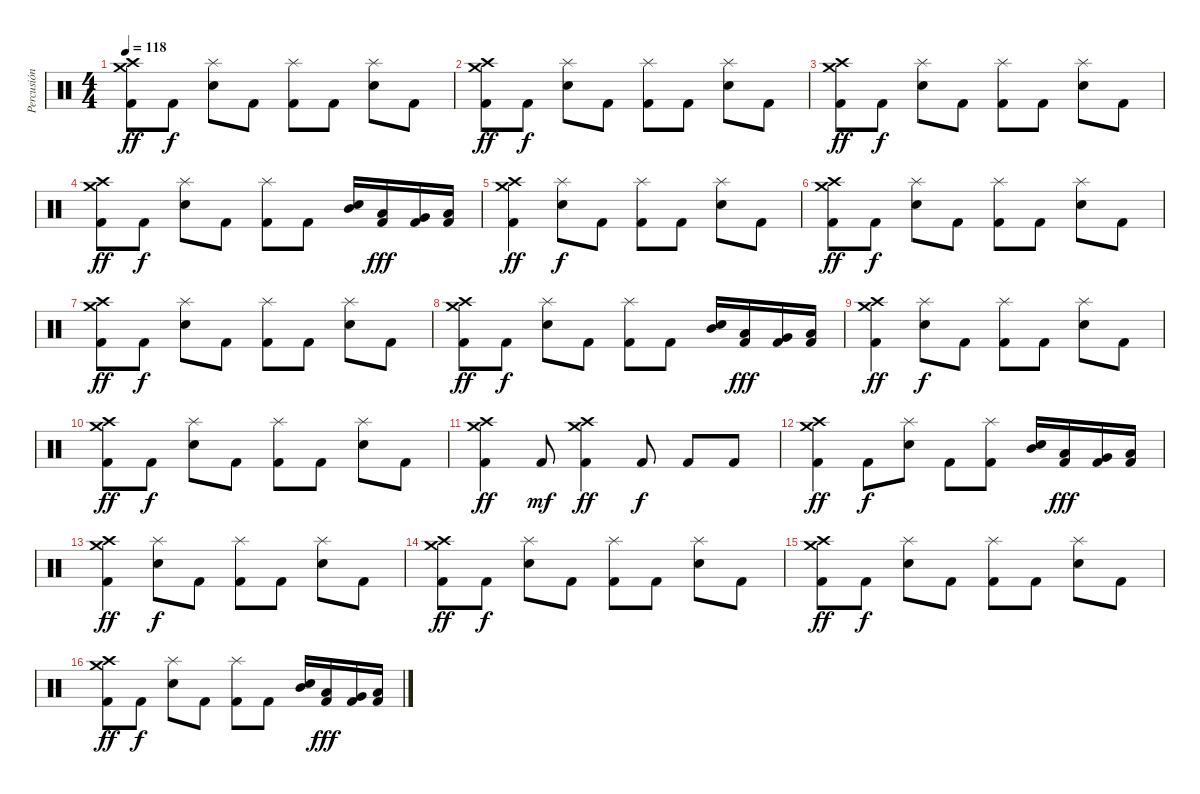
\track ("Percusión" "Percusión") {instrument percussion}
\staff {score}
\articulation defaults
\ts (4 4)
\tempo 118
\clef neutral
\ks c
("Kick (hit) 2" "Crash medium (hit)" "Crash high (hit)").8{dy ff} "Kick (hit) 2".8{dy f} ("Snare (hit) 2" "Splash (hit)").8 "Kick (hit) 2".8 ("Kick (hit) 2" "Splash (hit)").8 "Kick (hit) 2".8 ("Snare (hit) 2" "Splash (hit)").8 "Kick (hit) 2".8 |
("Kick (hit) 2" "Crash medium (hit)" "Crash high (hit)").8{dy ff} "Kick (hit) 2".8{dy f} ("Snare (hit) 2" "Splash (hit)").8 "Kick (hit) 2".8 ("Kick (hit) 2" "Splash (hit)").8 "Kick (hit) 2".8 ("Snare (hit) 2" "Splash (hit)").8 "Kick (hit) 2".8 |
("Kick (hit) 2" "Crash medium (hit)" "Crash high (hit)").8{dy ff} "Kick (hit) 2".8{dy f} ("Snare (hit) 2" "Splash (hit)").8 "Kick (hit) 2".8 ("Kick (hit) 2" "Splash (hit)").8 "Kick (hit) 2".8 ("Snare (hit) 2" "Splash (hit)").8 "Kick (hit) 2".8 |
("Kick (hit) 2" "Crash medium (hit)" "Crash high (hit)").8{dy ff} "Kick (hit) 2".8{dy f} ("Snare (hit) 2" "Splash (hit)").8 "Kick (hit) 2".8 ("Kick (hit) 2" "Splash (hit)").8 "Kick (hit) 2".8 ("Snare (hit) 2" "Mid Tom (hit)").16 ("Low Tom (hit)" "Kick (hit) 2").16{dy fff} ("Very Low Tom (hit)" "Kick (hit) 2").16 ("Low Floor Tom (hit)" "Kick (hit) 2").16 |
("Kick (hit) 2" "Crash medium (hit)" "Crash high (hit)").4{dy ff} ("Snare (hit) 2" "Splash (hit)").8{dy f} "Kick (hit) 2".8 ("Kick (hit) 2" "Splash (hit)").8 "Kick (hit) 2".8 ("Snare (hit) 2" "Splash (hit)").8 "Kick (hit) 2".8 |
("Kick (hit) 2" "Crash medium (hit)" "Crash high (hit)").8{dy ff} "Kick (hit) 2".8{dy f} ("Snare (hit) 2" "Splash (hit)").8 "Kick (hit) 2".8 ("Kick (hit) 2" "Splash (hit)").8 "Kick (hit) 2".8 ("Snare (hit) 2" "Splash (hit)").8 "Kick (hit) 2".8 |
("Kick (hit) 2" "Crash medium (hit)" "Crash high (hit)").8{dy ff} "Kick (hit) 2".8{dy f} ("Snare (hit) 2" "Splash (hit)").8 "Kick (hit) 2".8 ("Kick (hit) 2" "Splash (hit)").8 "Kick (hit) 2".8 ("Snare (hit) 2" "Splash (hit)").8 "Kick (hit) 2".8 |
("Kick (hit) 2" "Crash medium (hit)" "Crash high (hit)").8{dy ff} "Kick (hit) 2".8{dy f} ("Snare (hit) 2" "Splash (hit)").8 "Kick (hit) 2".8 ("Kick (hit) 2" "Splash (hit)").8 "Kick (hit) 2".8 ("Snare (hit) 2" "Mid Tom (hit)").16 ("Low Tom (hit)" "Kick (hit) 2").16{dy fff} ("Very Low Tom (hit)" "Kick (hit) 2").16 ("Low Floor Tom (hit)" "Kick (hit) 2").16 |
("Kick (hit) 2" "Crash medium (hit)" "Crash high (hit)").4{dy ff} ("Snare (hit) 2" "Splash (hit)").8{dy f} "Kick (hit) 2".8 ("Kick (hit) 2" "Splash (hit)").8 "Kick (hit) 2".8 ("Snare (hit) 2" "Splash (hit)").8 "Kick (hit) 2".8 |
("Kick (hit) 2" "Crash medium (hit)" "Crash high (hit)").8{dy ff} "Kick (hit) 2".8{dy f} ("Snare (hit) 2" "Splash (hit)").8 "Kick (hit) 2".8 ("Kick (hit) 2" "Splash (hit)").8 "Kick (hit) 2".8 ("Snare (hit) 2" "Splash (hit)").8 "Kick (hit) 2".8 |
("Kick (hit) 2" "Crash medium (hit)" "Crash high (hit)").4{dy ff} "Kick (hit) 2".8{dy mf} ("Kick (hit) 2" "Crash medium (hit)" "Crash high (hit)").4{dy ff} "Kick (hit) 2".8{dy f} "Kick (hit) 2".8 "Kick (hit) 2".8 |
("Kick (hit) 2" "Crash medium (hit)" "Crash high (hit)").4{dy ff} "Kick (hit) 2".8{dy f} ("Snare (hit) 2" "Splash (hit)").8 "Kick (hit) 2".8 ("Kick (hit) 2" "Splash (hit)").8 ("Snare (hit) 2" "Mid Tom (hit)").16 ("Low Tom (hit)" "Kick (hit) 2").16{dy fff} ("Very Low Tom (hit)" "Kick (hit) 2").16 ("Low Floor Tom (hit)" "Kick (hit) 2").16 |
("Kick (hit) 2" "Crash medium (hit)" "Crash high (hit)").4{dy ff} ("Snare (hit) 2" "Splash (hit)").8{dy f} "Kick (hit) 2".8 ("Kick (hit) 2" "Splash (hit)").8 "Kick (hit) 2".8 ("Snare (hit) 2" "Splash (hit)").8 "Kick (hit) 2".8 |
("Kick (hit) 2" "Crash medium (hit)" "Crash high (hit)").8{dy ff} "Kick (hit) 2".8{dy f} ("Snare (hit) 2" "Splash (hit)").8 "Kick (hit) 2".8 ("Kick (hit) 2" "Splash (hit)").8 "Kick (hit) 2".8 ("Snare (hit) 2" "Splash (hit)").8 "Kick (hit) 2".8 |
("Kick (hit) 2" "Crash medium (hit)" "Crash high (hit)").8{dy ff} "Kick (hit) 2".8{dy f} ("Snare (hit) 2" "Splash (hit)").8 "Kick (hit) 2".8 ("Kick (hit) 2" "Splash (hit)").8 "Kick (hit) 2".8 ("Snare (hit) 2" "Splash (hit)").8 "Kick (hit) 2".8 |
("Kick (hit) 2" "Crash medium (hit)" "Crash high (hit)").8{dy ff} "Kick (hit) 2".8{dy f} ("Snare (hit) 2" "Splash (hit)").8 "Kick (hit) 2".8 ("Kick (hit) 2" "Splash (hit)").8 "Kick (hit) 2".8 ("Snare (hit) 2" "Mid Tom (hit)").16 ("Low Tom (hit)" "Kick (hit) 2").16{dy fff} ("Very Low Tom (hit)" "Kick (hit) 2").16 ("Low Floor Tom (hit)" "Kick (hit) 2").16
